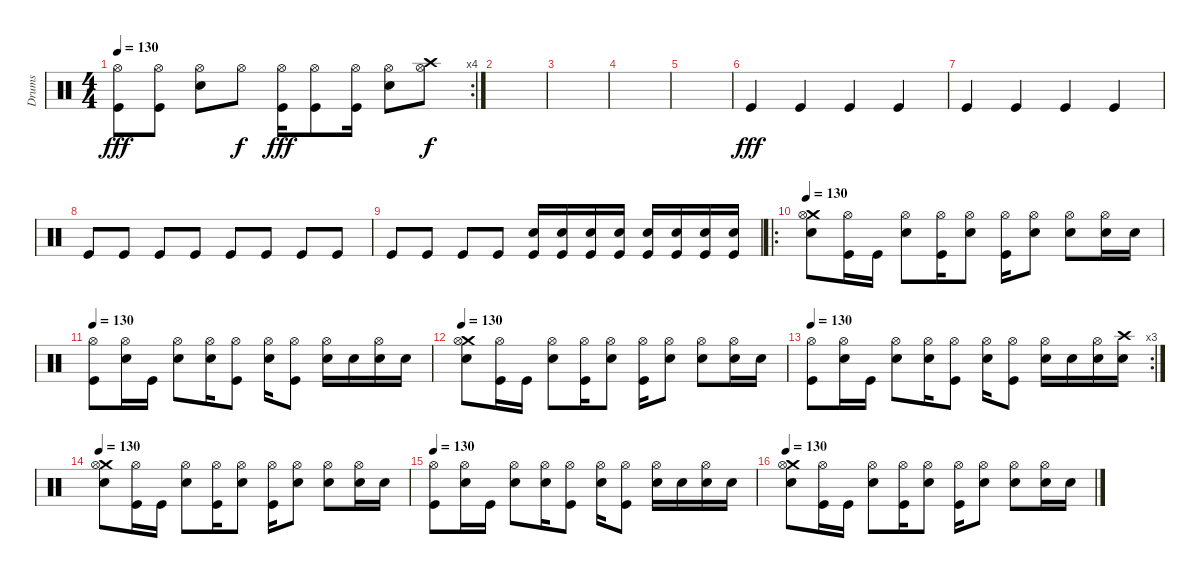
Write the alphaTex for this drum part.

\track ("Drums" "Drums") {instrument percussion}
\staff {score}
\articulation defaults
\rc 4
\ts (4 4)
\tempo 130
\clef neutral
\ks c
("Kick (hit)" "Hi-Hat (open)").8{dy fff} ("Kick (hit)" "Hi-Hat (open)").8 ("Snare (hit) 2" "Hi-Hat (open)").8 "Hi-Hat (open)".8{dy f} ("Kick (hit)" "Hi-Hat (open)").16{dy fff} ("Kick (hit)" "Hi-Hat (open)").8 ("Kick (hit)" "Hi-Hat (open)").16 ("Snare (hit) 2" "Hi-Hat (open)").8 ("Crash high (hit)" "Hi-Hat (open)").8{dy f} |
|
|
|
|
"Kick (hit)".4{dy fff} "Kick (hit)".4 "Kick (hit)".4 "Kick (hit)".4 |
"Kick (hit)".4 "Kick (hit)".4 "Kick (hit)".4 "Kick (hit)".4 |
"Kick (hit)".8 "Kick (hit)".8 "Kick (hit)".8 "Kick (hit)".8 "Kick (hit)".8 "Kick (hit)".8 "Kick (hit)".8 "Kick (hit)".8 |
"Kick (hit)".8 "Kick (hit)".8 "Kick (hit)".8 "Kick (hit)".8 ("Snare (hit) 2" "Kick (hit)").16 ("Snare (hit) 2" "Kick (hit)").16 ("Snare (hit) 2" "Kick (hit)").16 ("Snare (hit) 2" "Kick (hit)").16 ("Snare (hit) 2" "Kick (hit)").16 ("Snare (hit) 2" "Kick (hit)").16 ("Snare (hit) 2" "Kick (hit)").16 ("Snare (hit) 2" "Kick (hit)").16 |
\ro
\tempo 130
("Crash medium (hit)" "Snare (hit) 2" "Hi-Hat (open)").8 ("Kick (hit)" "Hi-Hat (open)").16 "Kick (hit)".16 ("Snare (hit) 2" "Hi-Hat (open)").8 ("Kick (hit)" "Hi-Hat (open)").16 ("Snare (hit) 2" "Hi-Hat (open)").8 ("Kick (hit)" "Hi-Hat (open)").16 ("Snare (hit) 2" "Hi-Hat (open)").8 ("Snare (hit) 2" "Hi-Hat (open)").8 ("Snare (hit) 2" "Hi-Hat (open)").16 "Snare (hit) 2".16 |
\tempo 130
("Kick (hit)" "Hi-Hat (open)").8 ("Snare (hit) 2" "Hi-Hat (open)").16 "Kick (hit)".16 ("Snare (hit) 2" "Hi-Hat (open)").8 ("Snare (hit) 2" "Hi-Hat (open)").16 ("Kick (hit)" "Hi-Hat (open)").8 ("Snare (hit) 2" "Hi-Hat (open)").16 ("Kick (hit)" "Hi-Hat (open)").8 ("Snare (hit) 2" "Hi-Hat (open)").16 "Snare (hit) 2".16 ("Snare (hit) 2" "Hi-Hat (open)").16 "Snare (hit) 2".16 |
\tempo 130
("Crash medium (hit)" "Snare (hit) 2" "Hi-Hat (open)").8 ("Kick (hit)" "Hi-Hat (open)").16 "Kick (hit)".16 ("Snare (hit) 2" "Hi-Hat (open)").8 ("Kick (hit)" "Hi-Hat (open)").16 ("Snare (hit) 2" "Hi-Hat (open)").8 ("Kick (hit)" "Hi-Hat (open)").16 ("Snare (hit) 2" "Hi-Hat (open)").8 ("Snare (hit) 2" "Hi-Hat (open)").8 ("Snare (hit) 2" "Hi-Hat (open)").16 "Snare (hit) 2".16 |
\rc 3
\tempo 130
("Kick (hit)" "Hi-Hat (open)").8 ("Snare (hit) 2" "Hi-Hat (open)").16 "Kick (hit)".16 ("Snare (hit) 2" "Hi-Hat (open)").8 ("Snare (hit) 2" "Hi-Hat (open)").16 ("Kick (hit)" "Hi-Hat (open)").8 ("Snare (hit) 2" "Hi-Hat (open)").16 ("Kick (hit)" "Hi-Hat (open)").8 ("Snare (hit) 2" "Hi-Hat (open)").16 "Snare (hit) 2".16 ("Snare (hit) 2" "Hi-Hat (open)").16 ("Crash high (hit)" "Snare (hit) 2").16 |
\tempo 130
("Crash medium (hit)" "Snare (hit) 2" "Hi-Hat (open)").8 ("Kick (hit)" "Hi-Hat (open)").16 "Kick (hit)".16 ("Snare (hit) 2" "Hi-Hat (open)").8 ("Kick (hit)" "Hi-Hat (open)").16 ("Snare (hit) 2" "Hi-Hat (open)").8 ("Kick (hit)" "Hi-Hat (open)").16 ("Snare (hit) 2" "Hi-Hat (open)").8 ("Snare (hit) 2" "Hi-Hat (open)").8 ("Snare (hit) 2" "Hi-Hat (open)").16 "Snare (hit) 2".16 |
\tempo 130
("Kick (hit)" "Hi-Hat (open)").8 ("Snare (hit) 2" "Hi-Hat (open)").16 "Kick (hit)".16 ("Snare (hit) 2" "Hi-Hat (open)").8 ("Snare (hit) 2" "Hi-Hat (open)").16 ("Kick (hit)" "Hi-Hat (open)").8 ("Snare (hit) 2" "Hi-Hat (open)").16 ("Kick (hit)" "Hi-Hat (open)").8 ("Snare (hit) 2" "Hi-Hat (open)").16 "Snare (hit) 2".16 ("Snare (hit) 2" "Hi-Hat (open)").16 "Snare (hit) 2".16 |
\tempo 130
("Crash medium (hit)" "Snare (hit) 2" "Hi-Hat (open)").8 ("Kick (hit)" "Hi-Hat (open)").16 "Kick (hit)".16 ("Snare (hit) 2" "Hi-Hat (open)").8 ("Kick (hit)" "Hi-Hat (open)").16 ("Snare (hit) 2" "Hi-Hat (open)").8 ("Kick (hit)" "Hi-Hat (open)").16 ("Snare (hit) 2" "Hi-Hat (open)").8 ("Snare (hit) 2" "Hi-Hat (open)").8 ("Snare (hit) 2" "Hi-Hat (open)").16 "Snare (hit) 2".16
